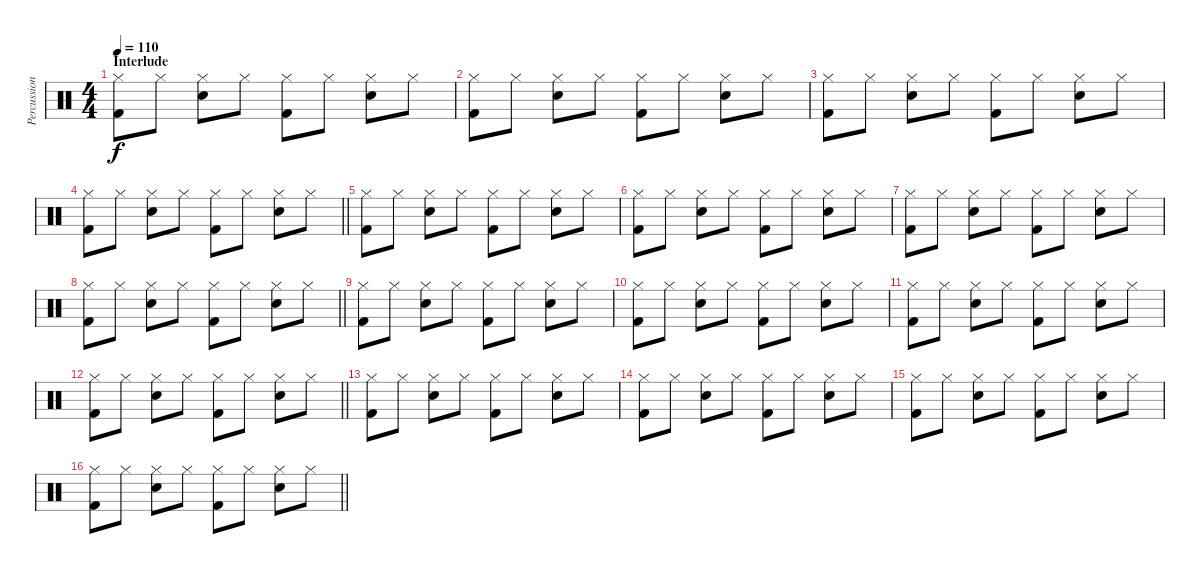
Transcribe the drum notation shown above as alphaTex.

\track ("Percussion" "Percussion") {instrument percussion}
\staff {score}
\articulation defaults
\ts (4 4)
\section ("" "Interlude")
\tempo 110
\clef neutral
\ks c
("Hi-Hat (closed)" "Kick (hit) 2").8{dy f} "Hi-Hat (closed)".8 ("Hi-Hat (closed)" "Electric Snare (hit)").8 "Hi-Hat (closed)".8 ("Hi-Hat (closed)" "Kick (hit) 2").8 "Hi-Hat (closed)".8 ("Hi-Hat (closed)" "Electric Snare (hit)").8 "Hi-Hat (closed)".8 |
("Hi-Hat (closed)" "Kick (hit) 2").8 "Hi-Hat (closed)".8 ("Hi-Hat (closed)" "Electric Snare (hit)").8 "Hi-Hat (closed)".8 ("Hi-Hat (closed)" "Kick (hit) 2").8 "Hi-Hat (closed)".8 ("Hi-Hat (closed)" "Electric Snare (hit)").8 "Hi-Hat (closed)".8 |
("Hi-Hat (closed)" "Kick (hit) 2").8 "Hi-Hat (closed)".8 ("Hi-Hat (closed)" "Electric Snare (hit)").8 "Hi-Hat (closed)".8 ("Hi-Hat (closed)" "Kick (hit) 2").8 "Hi-Hat (closed)".8 ("Hi-Hat (closed)" "Electric Snare (hit)").8 "Hi-Hat (closed)".8 |
\barLineRight lightlight
("Hi-Hat (closed)" "Kick (hit) 2").8 "Hi-Hat (closed)".8 ("Hi-Hat (closed)" "Electric Snare (hit)").8 "Hi-Hat (closed)".8 ("Hi-Hat (closed)" "Kick (hit) 2").8 "Hi-Hat (closed)".8 ("Hi-Hat (closed)" "Electric Snare (hit)").8 "Hi-Hat (closed)".8 |
("Hi-Hat (closed)" "Kick (hit) 2").8 "Hi-Hat (closed)".8 ("Hi-Hat (closed)" "Electric Snare (hit)").8 "Hi-Hat (closed)".8 ("Hi-Hat (closed)" "Kick (hit) 2").8 "Hi-Hat (closed)".8 ("Hi-Hat (closed)" "Electric Snare (hit)").8 "Hi-Hat (closed)".8 |
("Hi-Hat (closed)" "Kick (hit) 2").8 "Hi-Hat (closed)".8 ("Hi-Hat (closed)" "Electric Snare (hit)").8 "Hi-Hat (closed)".8 ("Hi-Hat (closed)" "Kick (hit) 2").8 "Hi-Hat (closed)".8 ("Hi-Hat (closed)" "Electric Snare (hit)").8 "Hi-Hat (closed)".8 |
("Hi-Hat (closed)" "Kick (hit) 2").8 "Hi-Hat (closed)".8 ("Hi-Hat (closed)" "Electric Snare (hit)").8 "Hi-Hat (closed)".8 ("Hi-Hat (closed)" "Kick (hit) 2").8 "Hi-Hat (closed)".8 ("Hi-Hat (closed)" "Electric Snare (hit)").8 "Hi-Hat (closed)".8 |
\barLineRight lightlight
("Hi-Hat (closed)" "Kick (hit) 2").8 "Hi-Hat (closed)".8 ("Hi-Hat (closed)" "Electric Snare (hit)").8 "Hi-Hat (closed)".8 ("Hi-Hat (closed)" "Kick (hit) 2").8 "Hi-Hat (closed)".8 ("Hi-Hat (closed)" "Electric Snare (hit)").8 "Hi-Hat (closed)".8 |
("Hi-Hat (closed)" "Kick (hit) 2").8 "Hi-Hat (closed)".8 ("Hi-Hat (closed)" "Electric Snare (hit)").8 "Hi-Hat (closed)".8 ("Hi-Hat (closed)" "Kick (hit) 2").8 "Hi-Hat (closed)".8 ("Hi-Hat (closed)" "Electric Snare (hit)").8 "Hi-Hat (closed)".8 |
("Hi-Hat (closed)" "Kick (hit) 2").8 "Hi-Hat (closed)".8 ("Hi-Hat (closed)" "Electric Snare (hit)").8 "Hi-Hat (closed)".8 ("Hi-Hat (closed)" "Kick (hit) 2").8 "Hi-Hat (closed)".8 ("Hi-Hat (closed)" "Electric Snare (hit)").8 "Hi-Hat (closed)".8 |
("Hi-Hat (closed)" "Kick (hit) 2").8 "Hi-Hat (closed)".8 ("Hi-Hat (closed)" "Electric Snare (hit)").8 "Hi-Hat (closed)".8 ("Hi-Hat (closed)" "Kick (hit) 2").8 "Hi-Hat (closed)".8 ("Hi-Hat (closed)" "Electric Snare (hit)").8 "Hi-Hat (closed)".8 |
\barLineRight lightlight
("Hi-Hat (closed)" "Kick (hit) 2").8 "Hi-Hat (closed)".8 ("Hi-Hat (closed)" "Electric Snare (hit)").8 "Hi-Hat (closed)".8 ("Hi-Hat (closed)" "Kick (hit) 2").8 "Hi-Hat (closed)".8 ("Hi-Hat (closed)" "Electric Snare (hit)").8 "Hi-Hat (closed)".8 |
("Hi-Hat (closed)" "Kick (hit) 2").8 "Hi-Hat (closed)".8 ("Hi-Hat (closed)" "Electric Snare (hit)").8 "Hi-Hat (closed)".8 ("Hi-Hat (closed)" "Kick (hit) 2").8 "Hi-Hat (closed)".8 ("Hi-Hat (closed)" "Electric Snare (hit)").8 "Hi-Hat (closed)".8 |
("Hi-Hat (closed)" "Kick (hit) 2").8 "Hi-Hat (closed)".8 ("Hi-Hat (closed)" "Electric Snare (hit)").8 "Hi-Hat (closed)".8 ("Hi-Hat (closed)" "Kick (hit) 2").8 "Hi-Hat (closed)".8 ("Hi-Hat (closed)" "Electric Snare (hit)").8 "Hi-Hat (closed)".8 |
("Hi-Hat (closed)" "Kick (hit) 2").8 "Hi-Hat (closed)".8 ("Hi-Hat (closed)" "Electric Snare (hit)").8 "Hi-Hat (closed)".8 ("Hi-Hat (closed)" "Kick (hit) 2").8 "Hi-Hat (closed)".8 ("Hi-Hat (closed)" "Electric Snare (hit)").8 "Hi-Hat (closed)".8 |
\barLineRight lightlight
("Hi-Hat (closed)" "Kick (hit) 2").8 "Hi-Hat (closed)".8 ("Hi-Hat (closed)" "Electric Snare (hit)").8 "Hi-Hat (closed)".8 ("Hi-Hat (closed)" "Kick (hit) 2").8 "Hi-Hat (closed)".8 ("Hi-Hat (closed)" "Electric Snare (hit)").8 "Hi-Hat (closed)".8
